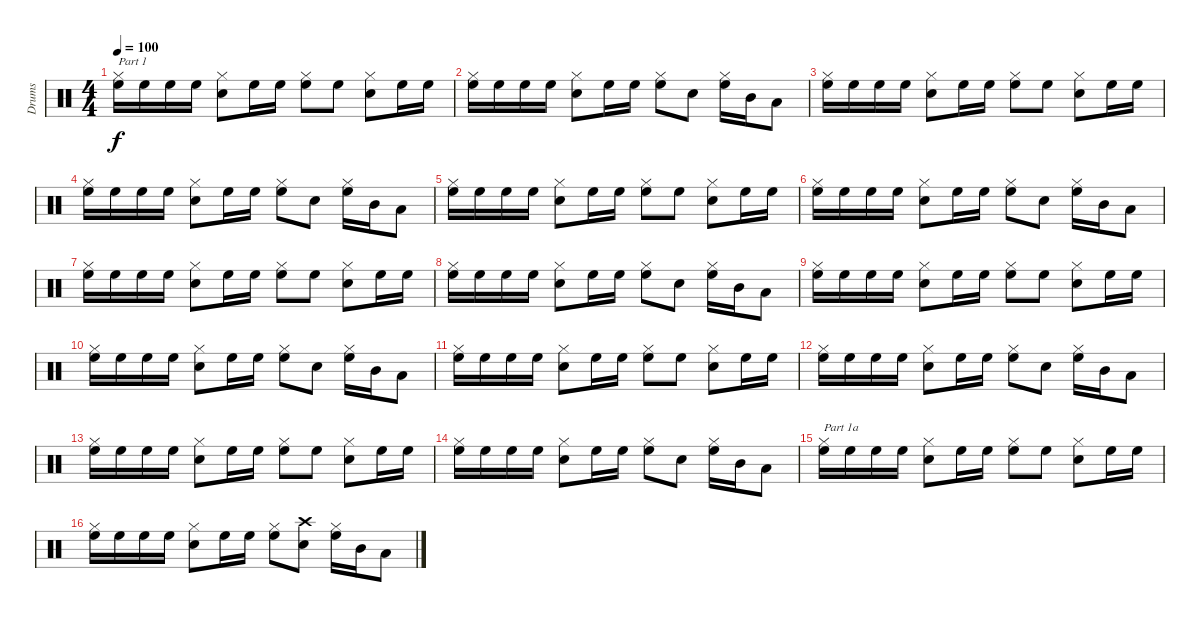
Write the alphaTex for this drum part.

\track ("Drums" "Drums") {instrument percussion}
\staff {score}
\articulation defaults
\ts (4 4)
\tempo 100
\clef neutral
\ks c
("High Floor Tom (hit)" "Hi-Hat (closed)").16{txt "Part 1" dy f} "High Floor Tom (hit)".16 "High Floor Tom (hit)".16 "High Floor Tom (hit)".16 ("Snare (hit) 2" "Hi-Hat (closed)").8 "High Floor Tom (hit)".16 "High Floor Tom (hit)".16 ("High Floor Tom (hit)" "Hi-Hat (closed)").8 "High Floor Tom (hit)".8 ("Snare (hit) 2" "Hi-Hat (closed)").8 "High Floor Tom (hit)".16 "High Floor Tom (hit)".16 |
("High Floor Tom (hit)" "Hi-Hat (closed)").16 "High Floor Tom (hit)".16 "High Floor Tom (hit)".16 "High Floor Tom (hit)".16 ("Snare (hit) 2" "Hi-Hat (closed)").8 "High Floor Tom (hit)".16 "High Floor Tom (hit)".16 ("High Floor Tom (hit)" "Hi-Hat (closed)").8 "Snare (hit) 2".8 ("High Floor Tom (hit)" "Hi-Hat (closed)").16 "Mid Tom (hit)".16 "Low Floor Tom (hit)".8 |
("High Floor Tom (hit)" "Hi-Hat (closed)").16 "High Floor Tom (hit)".16 "High Floor Tom (hit)".16 "High Floor Tom (hit)".16 ("Snare (hit) 2" "Hi-Hat (closed)").8 "High Floor Tom (hit)".16 "High Floor Tom (hit)".16 ("High Floor Tom (hit)" "Hi-Hat (closed)").8 "High Floor Tom (hit)".8 ("Snare (hit) 2" "Hi-Hat (closed)").8 "High Floor Tom (hit)".16 "High Floor Tom (hit)".16 |
("High Floor Tom (hit)" "Hi-Hat (closed)").16 "High Floor Tom (hit)".16 "High Floor Tom (hit)".16 "High Floor Tom (hit)".16 ("Snare (hit) 2" "Hi-Hat (closed)").8 "High Floor Tom (hit)".16 "High Floor Tom (hit)".16 ("High Floor Tom (hit)" "Hi-Hat (closed)").8 "Snare (hit) 2".8 ("High Floor Tom (hit)" "Hi-Hat (closed)").16 "Mid Tom (hit)".16 "Low Floor Tom (hit)".8 |
("High Floor Tom (hit)" "Hi-Hat (closed)").16 "High Floor Tom (hit)".16 "High Floor Tom (hit)".16 "High Floor Tom (hit)".16 ("Snare (hit) 2" "Hi-Hat (closed)").8 "High Floor Tom (hit)".16 "High Floor Tom (hit)".16 ("High Floor Tom (hit)" "Hi-Hat (closed)").8 "High Floor Tom (hit)".8 ("Snare (hit) 2" "Hi-Hat (closed)").8 "High Floor Tom (hit)".16 "High Floor Tom (hit)".16 |
("High Floor Tom (hit)" "Hi-Hat (closed)").16 "High Floor Tom (hit)".16 "High Floor Tom (hit)".16 "High Floor Tom (hit)".16 ("Snare (hit) 2" "Hi-Hat (closed)").8 "High Floor Tom (hit)".16 "High Floor Tom (hit)".16 ("High Floor Tom (hit)" "Hi-Hat (closed)").8 "Snare (hit) 2".8 ("High Floor Tom (hit)" "Hi-Hat (closed)").16 "Mid Tom (hit)".16 "Low Floor Tom (hit)".8 |
("High Floor Tom (hit)" "Hi-Hat (closed)").16 "High Floor Tom (hit)".16 "High Floor Tom (hit)".16 "High Floor Tom (hit)".16 ("Snare (hit) 2" "Hi-Hat (closed)").8 "High Floor Tom (hit)".16 "High Floor Tom (hit)".16 ("High Floor Tom (hit)" "Hi-Hat (closed)").8 "High Floor Tom (hit)".8 ("Snare (hit) 2" "Hi-Hat (closed)").8 "High Floor Tom (hit)".16 "High Floor Tom (hit)".16 |
("High Floor Tom (hit)" "Hi-Hat (closed)").16 "High Floor Tom (hit)".16 "High Floor Tom (hit)".16 "High Floor Tom (hit)".16 ("Snare (hit) 2" "Hi-Hat (closed)").8 "High Floor Tom (hit)".16 "High Floor Tom (hit)".16 ("High Floor Tom (hit)" "Hi-Hat (closed)").8 "Snare (hit) 2".8 ("High Floor Tom (hit)" "Hi-Hat (closed)").16 "Mid Tom (hit)".16 "Low Floor Tom (hit)".8 |
("High Floor Tom (hit)" "Hi-Hat (closed)").16 "High Floor Tom (hit)".16 "High Floor Tom (hit)".16 "High Floor Tom (hit)".16 ("Snare (hit) 2" "Hi-Hat (closed)").8 "High Floor Tom (hit)".16 "High Floor Tom (hit)".16 ("High Floor Tom (hit)" "Hi-Hat (closed)").8 "High Floor Tom (hit)".8 ("Snare (hit) 2" "Hi-Hat (closed)").8 "High Floor Tom (hit)".16 "High Floor Tom (hit)".16 |
("High Floor Tom (hit)" "Hi-Hat (closed)").16 "High Floor Tom (hit)".16 "High Floor Tom (hit)".16 "High Floor Tom (hit)".16 ("Snare (hit) 2" "Hi-Hat (closed)").8 "High Floor Tom (hit)".16 "High Floor Tom (hit)".16 ("High Floor Tom (hit)" "Hi-Hat (closed)").8 "Snare (hit) 2".8 ("High Floor Tom (hit)" "Hi-Hat (closed)").16 "Mid Tom (hit)".16 "Low Floor Tom (hit)".8 |
("High Floor Tom (hit)" "Hi-Hat (closed)").16 "High Floor Tom (hit)".16 "High Floor Tom (hit)".16 "High Floor Tom (hit)".16 ("Snare (hit) 2" "Hi-Hat (closed)").8 "High Floor Tom (hit)".16 "High Floor Tom (hit)".16 ("High Floor Tom (hit)" "Hi-Hat (closed)").8 "High Floor Tom (hit)".8 ("Snare (hit) 2" "Hi-Hat (closed)").8 "High Floor Tom (hit)".16 "High Floor Tom (hit)".16 |
("High Floor Tom (hit)" "Hi-Hat (closed)").16 "High Floor Tom (hit)".16 "High Floor Tom (hit)".16 "High Floor Tom (hit)".16 ("Snare (hit) 2" "Hi-Hat (closed)").8 "High Floor Tom (hit)".16 "High Floor Tom (hit)".16 ("High Floor Tom (hit)" "Hi-Hat (closed)").8 "Snare (hit) 2".8 ("High Floor Tom (hit)" "Hi-Hat (closed)").16 "Mid Tom (hit)".16 "Low Floor Tom (hit)".8 |
("High Floor Tom (hit)" "Hi-Hat (closed)").16 "High Floor Tom (hit)".16 "High Floor Tom (hit)".16 "High Floor Tom (hit)".16 ("Snare (hit) 2" "Hi-Hat (closed)").8 "High Floor Tom (hit)".16 "High Floor Tom (hit)".16 ("High Floor Tom (hit)" "Hi-Hat (closed)").8 "High Floor Tom (hit)".8 ("Snare (hit) 2" "Hi-Hat (closed)").8 "High Floor Tom (hit)".16 "High Floor Tom (hit)".16 |
("High Floor Tom (hit)" "Hi-Hat (closed)").16 "High Floor Tom (hit)".16 "High Floor Tom (hit)".16 "High Floor Tom (hit)".16 ("Snare (hit) 2" "Hi-Hat (closed)").8 "High Floor Tom (hit)".16 "High Floor Tom (hit)".16 ("High Floor Tom (hit)" "Hi-Hat (closed)").8 "Snare (hit) 2".8 ("High Floor Tom (hit)" "Hi-Hat (closed)").16 "Mid Tom (hit)".16 "Low Floor Tom (hit)".8 |
("High Floor Tom (hit)" "Hi-Hat (closed)").16{txt "Part 1a"} "High Floor Tom (hit)".16 "High Floor Tom (hit)".16 "High Floor Tom (hit)".16 ("Snare (hit) 2" "Hi-Hat (closed)").8 "High Floor Tom (hit)".16 "High Floor Tom (hit)".16 ("High Floor Tom (hit)" "Hi-Hat (closed)").8 "High Floor Tom (hit)".8 ("Snare (hit) 2" "Hi-Hat (closed)").8 "High Floor Tom (hit)".16 "High Floor Tom (hit)".16 |
("High Floor Tom (hit)" "Hi-Hat (closed)").16 "High Floor Tom (hit)".16 "High Floor Tom (hit)".16 "High Floor Tom (hit)".16 ("Snare (hit) 2" "Hi-Hat (closed)").8 "High Floor Tom (hit)".16 "High Floor Tom (hit)".16 ("High Floor Tom (hit)" "Hi-Hat (closed)").8 ("Crash high (hit)" "Snare (hit) 2").8 ("High Floor Tom (hit)" "Hi-Hat (closed)").16 "Mid Tom (hit)".16 "Low Floor Tom (hit)".8
